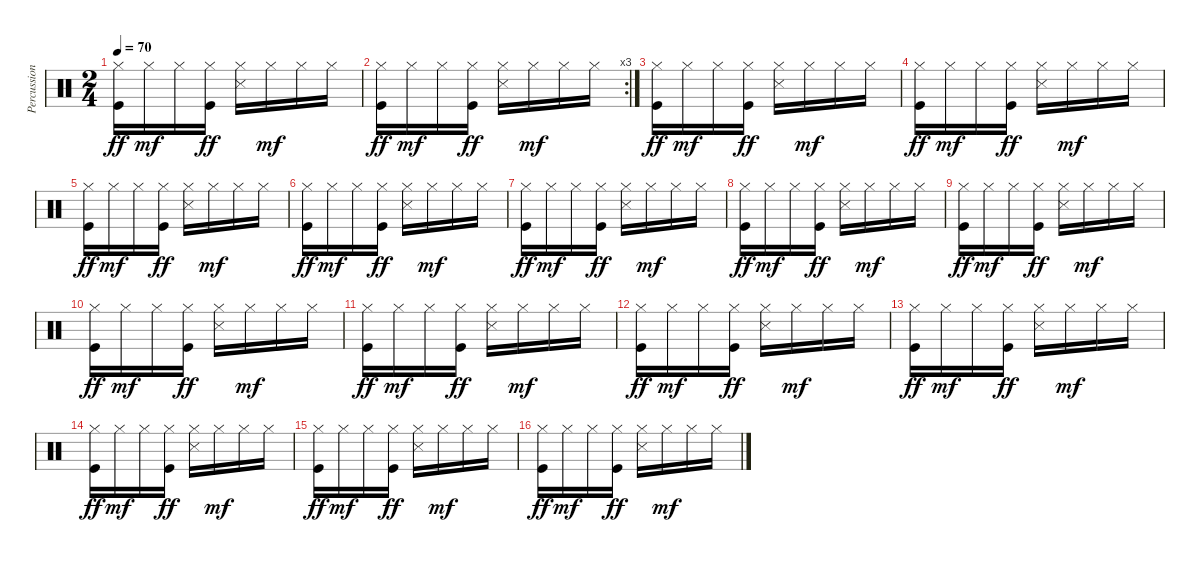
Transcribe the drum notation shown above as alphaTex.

\track ("Percussions" "Percussion") {instrument percussion}
\staff {score}
\articulation defaults
\ts (2 4)
\tempo 70
\clef neutral
\ks c
("Hi-Hat (closed)" "Kick (hit)").16{dy ff} "Hi-Hat (closed)".16{dy mf} "Hi-Hat (closed)".16 ("Hi-Hat (closed)" "Kick (hit)").16{dy ff} ("Hi-Hat (closed)" "Snare (side stick) 3").16 "Hi-Hat (closed)".16{dy mf} "Hi-Hat (closed)".16 "Hi-Hat (closed)".16 |
\rc 3
("Hi-Hat (closed)" "Kick (hit)").16{dy ff} "Hi-Hat (closed)".16{dy mf} "Hi-Hat (closed)".16 ("Hi-Hat (closed)" "Kick (hit)").16{dy ff} ("Hi-Hat (closed)" "Snare (side stick) 3").16 "Hi-Hat (closed)".16{dy mf} "Hi-Hat (closed)".16 "Hi-Hat (closed)".16 |
("Hi-Hat (closed)" "Kick (hit)").16{dy ff} "Hi-Hat (closed)".16{dy mf} "Hi-Hat (closed)".16 ("Hi-Hat (closed)" "Kick (hit)").16{dy ff} ("Hi-Hat (closed)" "Snare (side stick) 3").16 "Hi-Hat (closed)".16{dy mf} "Hi-Hat (closed)".16 "Hi-Hat (closed)".16 |
("Hi-Hat (closed)" "Kick (hit)").16{dy ff} "Hi-Hat (closed)".16{dy mf} "Hi-Hat (closed)".16 ("Hi-Hat (closed)" "Kick (hit)").16{dy ff} ("Hi-Hat (closed)" "Snare (side stick) 3").16 "Hi-Hat (closed)".16{dy mf} "Hi-Hat (closed)".16 "Hi-Hat (closed)".16 |
("Hi-Hat (closed)" "Kick (hit)").16{dy ff} "Hi-Hat (closed)".16{dy mf} "Hi-Hat (closed)".16 ("Hi-Hat (closed)" "Kick (hit)").16{dy ff} ("Hi-Hat (closed)" "Snare (side stick) 3").16 "Hi-Hat (closed)".16{dy mf} "Hi-Hat (closed)".16 "Hi-Hat (closed)".16 |
("Hi-Hat (closed)" "Kick (hit)").16{dy ff} "Hi-Hat (closed)".16{dy mf} "Hi-Hat (closed)".16 ("Hi-Hat (closed)" "Kick (hit)").16{dy ff} ("Hi-Hat (closed)" "Snare (side stick) 3").16 "Hi-Hat (closed)".16{dy mf} "Hi-Hat (closed)".16 "Hi-Hat (closed)".16 |
("Hi-Hat (closed)" "Kick (hit)").16{dy ff} "Hi-Hat (closed)".16{dy mf} "Hi-Hat (closed)".16 ("Hi-Hat (closed)" "Kick (hit)").16{dy ff} ("Hi-Hat (closed)" "Snare (side stick) 3").16 "Hi-Hat (closed)".16{dy mf} "Hi-Hat (closed)".16 "Hi-Hat (closed)".16 |
("Hi-Hat (closed)" "Kick (hit)").16{dy ff} "Hi-Hat (closed)".16{dy mf} "Hi-Hat (closed)".16 ("Hi-Hat (closed)" "Kick (hit)").16{dy ff} ("Hi-Hat (closed)" "Snare (side stick) 3").16 "Hi-Hat (closed)".16{dy mf} "Hi-Hat (closed)".16 "Hi-Hat (closed)".16 |
("Hi-Hat (closed)" "Kick (hit)").16{dy ff} "Hi-Hat (closed)".16{dy mf} "Hi-Hat (closed)".16 ("Hi-Hat (closed)" "Kick (hit)").16{dy ff} ("Hi-Hat (closed)" "Snare (side stick) 3").16 "Hi-Hat (closed)".16{dy mf} "Hi-Hat (closed)".16 "Hi-Hat (closed)".16 |
("Hi-Hat (closed)" "Kick (hit)").16{dy ff} "Hi-Hat (closed)".16{dy mf} "Hi-Hat (closed)".16 ("Hi-Hat (closed)" "Kick (hit)").16{dy ff} ("Hi-Hat (closed)" "Snare (side stick) 3").16 "Hi-Hat (closed)".16{dy mf} "Hi-Hat (closed)".16 "Hi-Hat (closed)".16 |
("Hi-Hat (closed)" "Kick (hit)").16{dy ff} "Hi-Hat (closed)".16{dy mf} "Hi-Hat (closed)".16 ("Hi-Hat (closed)" "Kick (hit)").16{dy ff} ("Hi-Hat (closed)" "Snare (side stick) 3").16 "Hi-Hat (closed)".16{dy mf} "Hi-Hat (closed)".16 "Hi-Hat (closed)".16 |
("Hi-Hat (closed)" "Kick (hit)").16{dy ff} "Hi-Hat (closed)".16{dy mf} "Hi-Hat (closed)".16 ("Hi-Hat (closed)" "Kick (hit)").16{dy ff} ("Hi-Hat (closed)" "Snare (side stick) 3").16 "Hi-Hat (closed)".16{dy mf} "Hi-Hat (closed)".16 "Hi-Hat (closed)".16 |
("Hi-Hat (closed)" "Kick (hit)").16{dy ff} "Hi-Hat (closed)".16{dy mf} "Hi-Hat (closed)".16 ("Hi-Hat (closed)" "Kick (hit)").16{dy ff} ("Hi-Hat (closed)" "Snare (side stick) 3").16 "Hi-Hat (closed)".16{dy mf} "Hi-Hat (closed)".16 "Hi-Hat (closed)".16 |
("Hi-Hat (closed)" "Kick (hit)").16{dy ff} "Hi-Hat (closed)".16{dy mf} "Hi-Hat (closed)".16 ("Hi-Hat (closed)" "Kick (hit)").16{dy ff} ("Hi-Hat (closed)" "Snare (side stick) 3").16 "Hi-Hat (closed)".16{dy mf} "Hi-Hat (closed)".16 "Hi-Hat (closed)".16 |
("Hi-Hat (closed)" "Kick (hit)").16{dy ff} "Hi-Hat (closed)".16{dy mf} "Hi-Hat (closed)".16 ("Hi-Hat (closed)" "Kick (hit)").16{dy ff} ("Hi-Hat (closed)" "Snare (side stick) 3").16 "Hi-Hat (closed)".16{dy mf} "Hi-Hat (closed)".16 "Hi-Hat (closed)".16 |
("Hi-Hat (closed)" "Kick (hit)").16{dy ff} "Hi-Hat (closed)".16{dy mf} "Hi-Hat (closed)".16 ("Hi-Hat (closed)" "Kick (hit)").16{dy ff} ("Hi-Hat (closed)" "Snare (side stick) 3").16 "Hi-Hat (closed)".16{dy mf} "Hi-Hat (closed)".16 "Hi-Hat (closed)".16
